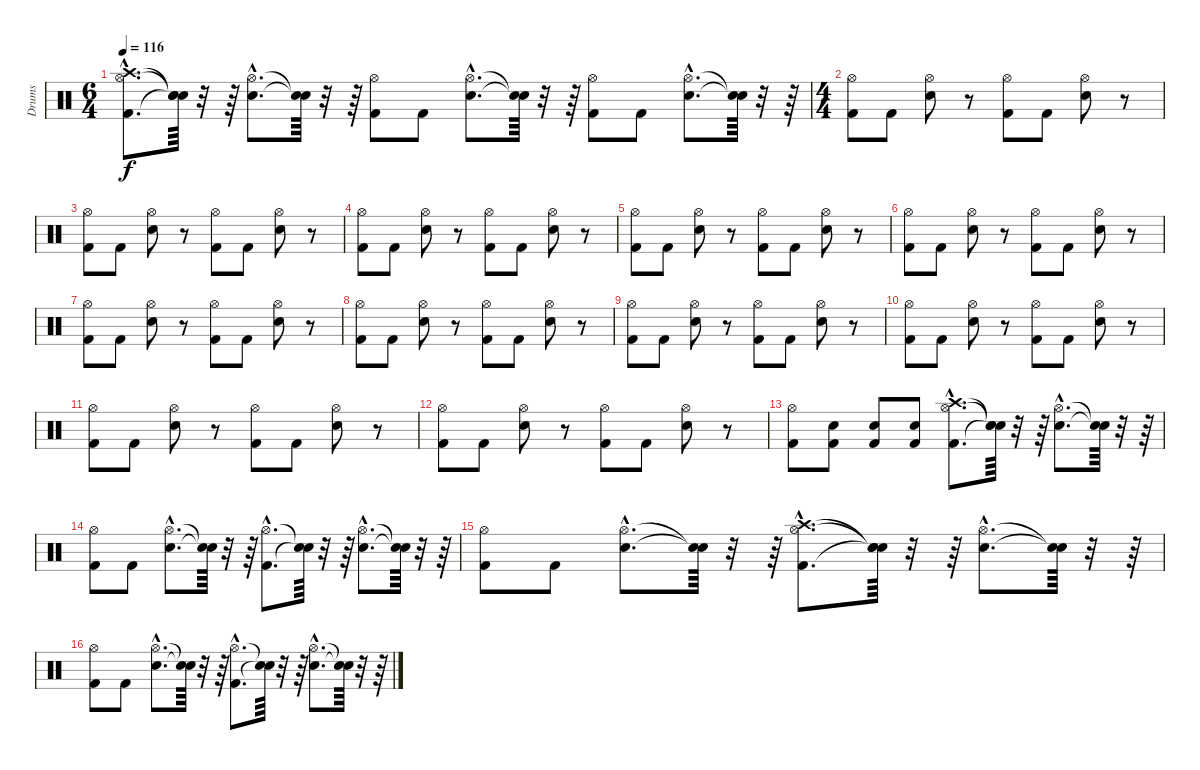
\track ("Drums" "Drums") {instrument percussion}
\staff {score}
\articulation defaults
\ts (6 4)
\tempo 116
\clef neutral
\ks c
("Kick (hit) 2"{hac} "Hi-Hat (open)"{hac} "Crash high (hit)"{hac}).8{d dy f} ("Snare (hit)"{t} "Snare (hit)"{t} "Snare (hit)"{t}).64 r.32 r.64 ("Snare (hit) 2"{hac} "Hi-Hat (open)"{hac}).8{d} ("Snare (hit)"{t} "Snare (hit)"{t}).64 r.32 r.64 ("Kick (hit) 2" "Hi-Hat (open)").8 "Kick (hit) 2".8 ("Snare (hit) 2"{hac} "Hi-Hat (open)"{hac}).8{d} ("Snare (hit)"{t} "Snare (hit)"{t}).64 r.32 r.64 ("Kick (hit) 2" "Hi-Hat (open)").8 "Kick (hit) 2".8 ("Snare (hit) 2"{hac} "Hi-Hat (open)"{hac}).8{d} ("Snare (hit)"{t} "Snare (hit)"{t}).64 r.32 r.64 |
\ts (4 4)
("Kick (hit) 2" "Hi-Hat (open)").8 "Kick (hit) 2".8 ("Snare (hit) 2" "Hi-Hat (open)").8 r.8 ("Kick (hit) 2" "Hi-Hat (open)").8 "Kick (hit) 2".8 ("Snare (hit) 2" "Hi-Hat (open)").8 r.8 |
("Kick (hit) 2" "Hi-Hat (open)").8 "Kick (hit) 2".8 ("Snare (hit) 2" "Hi-Hat (open)").8 r.8 ("Kick (hit) 2" "Hi-Hat (open)").8 "Kick (hit) 2".8 ("Snare (hit) 2" "Hi-Hat (open)").8 r.8 |
("Kick (hit) 2" "Hi-Hat (open)").8 "Kick (hit) 2".8 ("Snare (hit) 2" "Hi-Hat (open)").8 r.8 ("Kick (hit) 2" "Hi-Hat (open)").8 "Kick (hit) 2".8 ("Snare (hit) 2" "Hi-Hat (open)").8 r.8 |
("Kick (hit) 2" "Hi-Hat (open)").8 "Kick (hit) 2".8 ("Snare (hit) 2" "Hi-Hat (open)").8 r.8 ("Kick (hit) 2" "Hi-Hat (open)").8 "Kick (hit) 2".8 ("Snare (hit) 2" "Hi-Hat (open)").8 r.8 |
("Kick (hit) 2" "Hi-Hat (open)").8 "Kick (hit) 2".8 ("Snare (hit) 2" "Hi-Hat (open)").8 r.8 ("Kick (hit) 2" "Hi-Hat (open)").8 "Kick (hit) 2".8 ("Snare (hit) 2" "Hi-Hat (open)").8 r.8 |
("Kick (hit) 2" "Hi-Hat (open)").8 "Kick (hit) 2".8 ("Snare (hit) 2" "Hi-Hat (open)").8 r.8 ("Kick (hit) 2" "Hi-Hat (open)").8 "Kick (hit) 2".8 ("Snare (hit) 2" "Hi-Hat (open)").8 r.8 |
("Kick (hit) 2" "Hi-Hat (open)").8 "Kick (hit) 2".8 ("Snare (hit) 2" "Hi-Hat (open)").8 r.8 ("Kick (hit) 2" "Hi-Hat (open)").8 "Kick (hit) 2".8 ("Snare (hit) 2" "Hi-Hat (open)").8 r.8 |
("Kick (hit) 2" "Hi-Hat (open)").8 "Kick (hit) 2".8 ("Snare (hit) 2" "Hi-Hat (open)").8 r.8 ("Kick (hit) 2" "Hi-Hat (open)").8 "Kick (hit) 2".8 ("Snare (hit) 2" "Hi-Hat (open)").8 r.8 |
("Kick (hit) 2" "Hi-Hat (open)").8 "Kick (hit) 2".8 ("Snare (hit) 2" "Hi-Hat (open)").8 r.8 ("Kick (hit) 2" "Hi-Hat (open)").8 "Kick (hit) 2".8 ("Snare (hit) 2" "Hi-Hat (open)").8 r.8 |
("Kick (hit) 2" "Hi-Hat (open)").8 "Kick (hit) 2".8 ("Snare (hit) 2" "Hi-Hat (open)").8 r.8 ("Kick (hit) 2" "Hi-Hat (open)").8 "Kick (hit) 2".8 ("Snare (hit) 2" "Hi-Hat (open)").8 r.8 |
("Kick (hit) 2" "Hi-Hat (open)").8 "Kick (hit) 2".8 ("Snare (hit) 2" "Hi-Hat (open)").8 r.8 ("Kick (hit) 2" "Hi-Hat (open)").8 "Kick (hit) 2".8 ("Snare (hit) 2" "Hi-Hat (open)").8 r.8 |
("Kick (hit) 2" "Hi-Hat (open)").8 ("Kick (hit) 2" "Snare (hit) 2").8 ("Kick (hit) 2" "Snare (hit) 2").8 ("Kick (hit) 2" "Snare (hit) 2").8 ("Kick (hit) 2"{hac} "Hi-Hat (open)"{hac} "Crash high (hit)"{hac}).8{d} ("Snare (hit)"{t} "Snare (hit)"{t} "Snare (hit)"{t}).64 r.32 r.64 ("Snare (hit) 2"{hac} "Hi-Hat (open)"{hac}).8{d} ("Snare (hit)"{t} "Snare (hit)"{t}).64 r.32 r.64 |
("Kick (hit) 2" "Hi-Hat (open)").8 "Kick (hit) 2".8 ("Snare (hit) 2"{hac} "Hi-Hat (open)"{hac}).8{d} ("Snare (hit)"{t} "Snare (hit)"{t}).64 r.32 r.64 ("Kick (hit) 2"{hac} "Hi-Hat (open)"{hac}).8{d} ("Snare (hit)"{t} "Snare (hit)"{t}).64 r.32 r.64 ("Snare (hit) 2"{hac} "Hi-Hat (open)"{hac}).8{d} ("Snare (hit)"{t} "Snare (hit)"{t}).64 r.32 r.64 |
("Kick (hit) 2" "Hi-Hat (open)").8 "Kick (hit) 2".8 ("Snare (hit) 2"{hac} "Hi-Hat (open)"{hac}).8{d} ("Snare (hit)"{t} "Snare (hit)"{t}).64 r.32 r.64 ("Kick (hit) 2"{hac} "Hi-Hat (open)"{hac} "Crash high (hit)"{hac}).8{d} ("Snare (hit)"{t} "Snare (hit)"{t} "Snare (hit)"{t}).64 r.32 r.64 ("Snare (hit) 2"{hac} "Hi-Hat (open)"{hac}).8{d} ("Snare (hit)"{t} "Snare (hit)"{t}).64 r.32 r.64 |
("Kick (hit) 2" "Hi-Hat (open)").8 "Kick (hit) 2".8 ("Snare (hit) 2"{hac} "Hi-Hat (open)"{hac}).8{d} ("Snare (hit)"{t} "Snare (hit)"{t}).64 r.32 r.64 ("Kick (hit) 2"{hac} "Hi-Hat (open)"{hac}).8{d} ("Snare (hit)"{t} "Snare (hit)"{t}).64 r.32 r.64 ("Snare (hit) 2"{hac} "Hi-Hat (open)"{hac}).8{d} ("Snare (hit)"{t} "Snare (hit)"{t}).64 r.32 r.64
